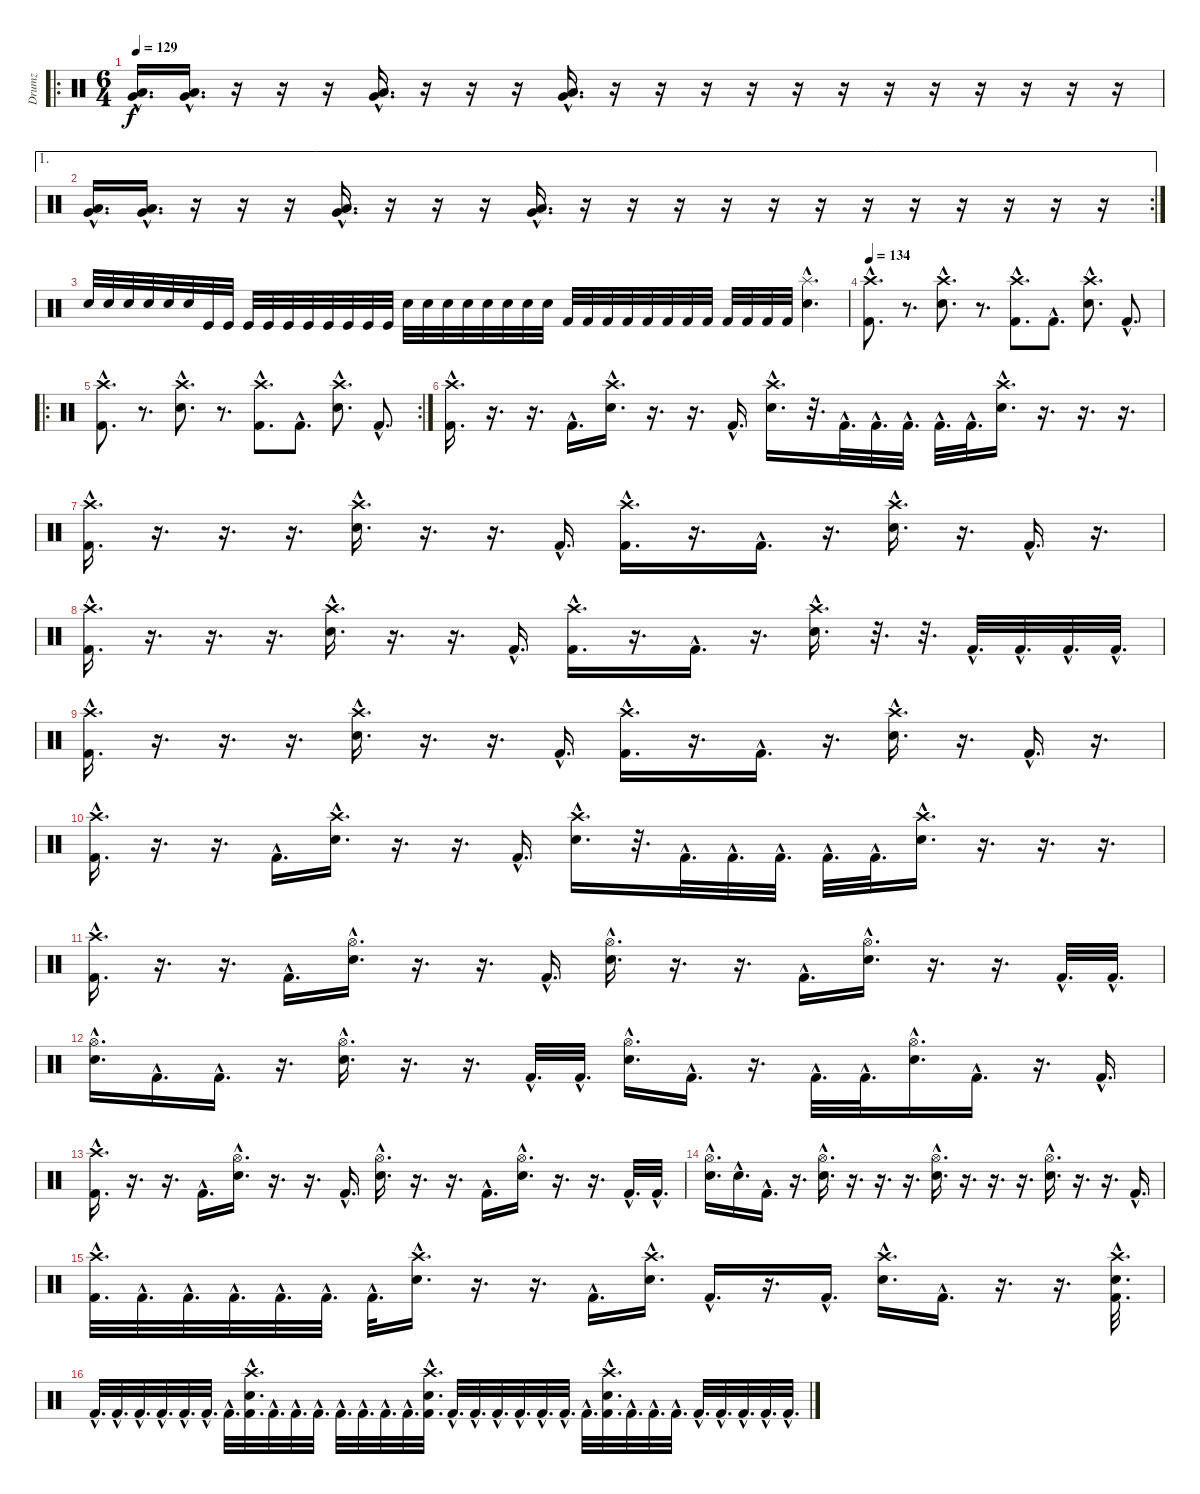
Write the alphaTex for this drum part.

\track ("Drumz" "Drumz") {instrument percussion}
\staff {score}
\articulation defaults
\ro
\ts (6 4)
\tempo 129
\clef neutral
\ks c
("Low Tom (hit)"{hac} "Very Low Tom (hit)"{hac}).16{d dy f} ("Low Tom (hit)"{hac} "Very Low Tom (hit)"{hac}).16{d} r.16 r.16 r.16 ("Low Tom (hit)"{hac} "Very Low Tom (hit)"{hac}).16{d} r.16 r.16 r.16 ("Low Tom (hit)"{hac} "Very Low Tom (hit)"{hac}).16{d} r.16 r.16 r.16 r.16 r.16 r.16 r.16 r.16 r.16 r.16 r.16 r.16 |
\ae 1
\rc 2
("Low Tom (hit)"{hac} "Very Low Tom (hit)"{hac}).16{d} ("Low Tom (hit)"{hac} "Very Low Tom (hit)"{hac}).16{d} r.16 r.16 r.16 ("Low Tom (hit)"{hac} "Very Low Tom (hit)"{hac}).16{d} r.16 r.16 r.16 ("Low Tom (hit)"{hac} "Very Low Tom (hit)"{hac}).16{d} r.16 r.16 r.16 r.16 r.16 r.16 r.16 r.16 r.16 r.16 r.16 r.16 |
"Snare (hit) 2".32 "Snare (hit) 2".32 "Snare (hit) 2".32 "Snare (hit) 2".32 "Snare (hit) 2".32 "Snare (hit) 2".32 "Kick (hit)".32 "Kick (hit)".32 "Kick (hit)".32 "Kick (hit)".32 "Kick (hit)".32 "Kick (hit)".32 "Kick (hit)".32 "Kick (hit)".32 "Kick (hit)".32 "Kick (hit)".32 "Snare (hit) 2".32 "Snare (hit) 2".32 "Snare (hit) 2".32 "Snare (hit) 2".32 "Snare (hit) 2".32 "Snare (hit) 2".32 "Snare (hit) 2".32 "Snare (hit) 2".32 "Kick (hit) 2".32 "Kick (hit) 2".32 "Kick (hit) 2".32 "Kick (hit) 2".32 "Kick (hit) 2".32 "Kick (hit) 2".32 "Kick (hit) 2".32 "Kick (hit) 2".32 "Kick (hit) 2".32 "Kick (hit) 2".32 "Kick (hit) 2".32 "Kick (hit) 2".32 ("Splash (hit)"{hac} "Snare (hit) 2"{hac}).4{d} |
\tempo 134
("Crash high (hit)"{hac} "Kick (hit) 2"{hac}).8{d} r.8{d} ("Crash high (hit)"{hac} "Snare (hit) 2"{hac}).8{d} r.8{d} ("Crash high (hit)"{hac} "Kick (hit) 2"{hac}).8{d} "Kick (hit) 2"{hac}.8{d} ("Crash high (hit)"{hac} "Snare (hit) 2"{hac}).8{d} "Kick (hit) 2"{hac}.8{d} |
\ro
\rc 2
("Crash high (hit)"{hac} "Kick (hit) 2"{hac}).8{d} r.8{d} ("Crash high (hit)"{hac} "Snare (hit) 2"{hac}).8{d} r.8{d} ("Crash high (hit)"{hac} "Kick (hit) 2"{hac}).8{d} "Kick (hit) 2"{hac}.8{d} ("Crash high (hit)"{hac} "Snare (hit) 2"{hac}).8{d} "Kick (hit) 2"{hac}.8{d} |
("Crash high (hit)"{hac} "Kick (hit) 2"{hac}).16{d} r.16{d} r.16{d} "Kick (hit) 2"{hac}.16{d} ("Crash high (hit)"{hac} "Snare (hit) 2"{hac}).16{d} r.16{d} r.16{d} "Kick (hit) 2"{hac}.16{d} ("Crash high (hit)"{hac} "Snare (hit) 2"{hac}).16{d} r.32{d} "Kick (hit) 2"{hac}.32{d} "Kick (hit) 2"{hac}.32{d} "Kick (hit) 2"{hac}.32{d} "Kick (hit) 2"{hac}.32{d} "Kick (hit) 2"{hac}.32{d} ("Crash high (hit)"{hac} "Snare (hit) 2"{hac}).16{d} r.16{d} r.16{d} r.16{d} |
("Crash high (hit)"{hac} "Kick (hit) 2"{hac}).16{d} r.16{d} r.16{d} r.16{d} ("Crash high (hit)"{hac} "Snare (hit) 2"{hac}).16{d} r.16{d} r.16{d} "Kick (hit) 2"{hac}.16{d} ("Crash high (hit)"{hac} "Kick (hit) 2"{hac}).16{d} r.16{d} "Kick (hit) 2"{hac}.16{d} r.16{d} ("Crash high (hit)"{hac} "Snare (hit) 2"{hac}).16{d} r.16{d} "Kick (hit) 2"{hac}.16{d} r.16{d} |
("Crash high (hit)"{hac} "Kick (hit) 2"{hac}).16{d} r.16{d} r.16{d} r.16{d} ("Crash high (hit)"{hac} "Snare (hit) 2"{hac}).16{d} r.16{d} r.16{d} "Kick (hit) 2"{hac}.16{d} ("Crash high (hit)"{hac} "Kick (hit) 2"{hac}).16{d} r.16{d} "Kick (hit) 2"{hac}.16{d} r.16{d} ("Crash high (hit)"{hac} "Snare (hit) 2"{hac}).16{d} r.32{d} r.32{d} "Kick (hit) 2"{hac}.32{d} "Kick (hit) 2"{hac}.32{d} "Kick (hit) 2"{hac}.32{d} "Kick (hit) 2"{hac}.32{d} |
("Crash high (hit)"{hac} "Kick (hit) 2"{hac}).16{d} r.16{d} r.16{d} r.16{d} ("Crash high (hit)"{hac} "Snare (hit) 2"{hac}).16{d} r.16{d} r.16{d} "Kick (hit) 2"{hac}.16{d} ("Crash high (hit)"{hac} "Kick (hit) 2"{hac}).16{d} r.16{d} "Kick (hit) 2"{hac}.16{d} r.16{d} ("Crash high (hit)"{hac} "Snare (hit) 2"{hac}).16{d} r.16{d} "Kick (hit) 2"{hac}.16{d} r.16{d} |
("Crash high (hit)"{hac} "Kick (hit) 2"{hac}).16{d} r.16{d} r.16{d} "Kick (hit) 2"{hac}.16{d} ("Crash high (hit)"{hac} "Snare (hit) 2"{hac}).16{d} r.16{d} r.16{d} "Kick (hit) 2"{hac}.16{d} ("Crash high (hit)"{hac} "Snare (hit) 2"{hac}).16{d} r.32{d} "Kick (hit) 2"{hac}.32{d} "Kick (hit) 2"{hac}.32{d} "Kick (hit) 2"{hac}.32{d} "Kick (hit) 2"{hac}.32{d} "Kick (hit) 2"{hac}.32{d} ("Crash high (hit)"{hac} "Snare (hit) 2"{hac}).16{d} r.16{d} r.16{d} r.16{d} |
("Crash high (hit)"{hac} "Kick (hit) 2"{hac}).16{d} r.16{d} r.16{d} "Kick (hit) 2"{hac}.16{d} ("Hi-Hat (open)"{hac} "Snare (hit) 2"{hac}).16{d} r.16{d} r.16{d} "Kick (hit) 2"{hac}.16{d} ("Hi-Hat (open)"{hac} "Snare (hit) 2"{hac}).16{d} r.16{d} r.16{d} "Kick (hit) 2"{hac}.16{d} ("Hi-Hat (open)"{hac} "Snare (hit) 2"{hac}).16{d} r.16{d} r.16{d} "Kick (hit) 2"{hac}.32{d} "Kick (hit) 2"{hac}.32{d} |
("Hi-Hat (open)"{hac} "Snare (hit) 2"{hac}).16{d} "Kick (hit) 2"{hac}.16{d} "Kick (hit) 2"{hac}.16{d} r.16{d} ("Hi-Hat (open)"{hac} "Snare (hit) 2"{hac}).16{d} r.16{d} r.16{d} "Kick (hit) 2"{hac}.32{d} "Kick (hit) 2"{hac}.32{d} ("Hi-Hat (open)"{hac} "Snare (hit) 2"{hac}).16{d} "Kick (hit) 2"{hac}.16{d} r.16{d} "Kick (hit) 2"{hac}.32{d} "Kick (hit) 2"{hac}.32{d} ("Hi-Hat (open)"{hac} "Snare (hit) 2"{hac}).16{d} "Kick (hit) 2"{hac}.16{d} r.16{d} "Kick (hit) 2"{hac}.16{d} |
("Crash high (hit)"{hac} "Kick (hit) 2"{hac}).16{d} r.16{d} r.16{d} "Kick (hit) 2"{hac}.16{d} ("Hi-Hat (open)"{hac} "Snare (hit) 2"{hac}).16{d} r.16{d} r.16{d} "Kick (hit) 2"{hac}.16{d} ("Hi-Hat (open)"{hac} "Snare (hit) 2"{hac}).16{d} r.16{d} r.16{d} "Kick (hit) 2"{hac}.16{d} ("Hi-Hat (open)"{hac} "Snare (hit) 2"{hac}).16{d} r.16{d} r.16{d} "Kick (hit) 2"{hac}.32{d} "Kick (hit) 2"{hac}.32{d} |
("Hi-Hat (open)"{hac} "Snare (hit) 2"{hac}).16{d} "Snare (hit) 2"{hac}.16{d} "Kick (hit) 2"{hac}.16{d} r.16{d} ("Hi-Hat (open)"{hac} "Snare (hit) 2"{hac}).16{d} r.16{d} r.16{d} r.16{d} ("Hi-Hat (open)"{hac} "Snare (hit) 2"{hac}).16{d} r.16{d} r.16{d} r.16{d} ("Hi-Hat (open)"{hac} "Snare (hit) 2"{hac}).16{d} r.16{d} r.16{d} "Kick (hit) 2"{hac}.16{d} |
("Crash high (hit)"{hac} "Kick (hit) 2"{hac}).32{d} "Kick (hit) 2"{hac}.32{d} "Kick (hit) 2"{hac}.32{d} "Kick (hit) 2"{hac}.32{d} "Kick (hit) 2"{hac}.32{d} "Kick (hit) 2"{hac}.32{d} "Kick (hit) 2"{hac}.32{d} ("Crash high (hit)"{hac} "Snare (hit) 2"{hac}).16{d} r.16{d} r.16{d} "Kick (hit) 2"{hac}.16{d} ("Crash high (hit)"{hac} "Snare (hit) 2"{hac}).16{d} "Kick (hit) 2"{hac}.16{d} r.16{d} "Kick (hit) 2"{hac}.16{d} ("Crash high (hit)"{hac} "Snare (hit) 2"{hac}).16{d} "Kick (hit) 2"{hac}.16{d} r.16{d} r.16{d} ("Crash high (hit)"{hac} "Snare (hit) 2"{hac} "Kick (hit) 2"{hac}).32{d} |
"Kick (hit) 2"{hac}.32{d} "Kick (hit) 2"{hac}.32{d} "Kick (hit) 2"{hac}.32{d} "Kick (hit) 2"{hac}.32{d} "Kick (hit) 2"{hac}.32{d} "Kick (hit) 2"{hac}.32{d} "Kick (hit) 2"{hac}.32{d} ("Crash high (hit)"{hac} "Snare (hit) 2"{hac} "Kick (hit) 2"{hac}).32{d} "Kick (hit) 2"{hac}.32{d} "Kick (hit) 2"{hac}.32{d} "Kick (hit) 2"{hac}.32{d} "Kick (hit) 2"{hac}.32{d} "Kick (hit) 2"{hac}.32{d} "Kick (hit) 2"{hac}.32{d} "Kick (hit) 2"{hac}.32{d} ("Crash high (hit)"{hac} "Snare (hit) 2"{hac} "Kick (hit) 2"{hac}).32{d} "Kick (hit) 2"{hac}.32{d} "Kick (hit) 2"{hac}.32{d} "Kick (hit) 2"{hac}.32{d} "Kick (hit) 2"{hac}.32{d} "Kick (hit) 2"{hac}.32{d} "Kick (hit) 2"{hac}.32{d} "Kick (hit) 2"{hac}.32{d} ("Crash high (hit)"{hac} "Snare (hit) 2"{hac} "Kick (hit) 2"{hac}).32{d} "Kick (hit) 2"{hac}.32{d} "Kick (hit) 2"{hac}.32{d} "Kick (hit) 2"{hac}.32{d} "Kick (hit) 2"{hac}.32{d} "Kick (hit) 2"{hac}.32{d} "Kick (hit) 2"{hac}.32{d} "Kick (hit) 2"{hac}.32{d} "Kick (hit) 2"{hac}.32{d}
